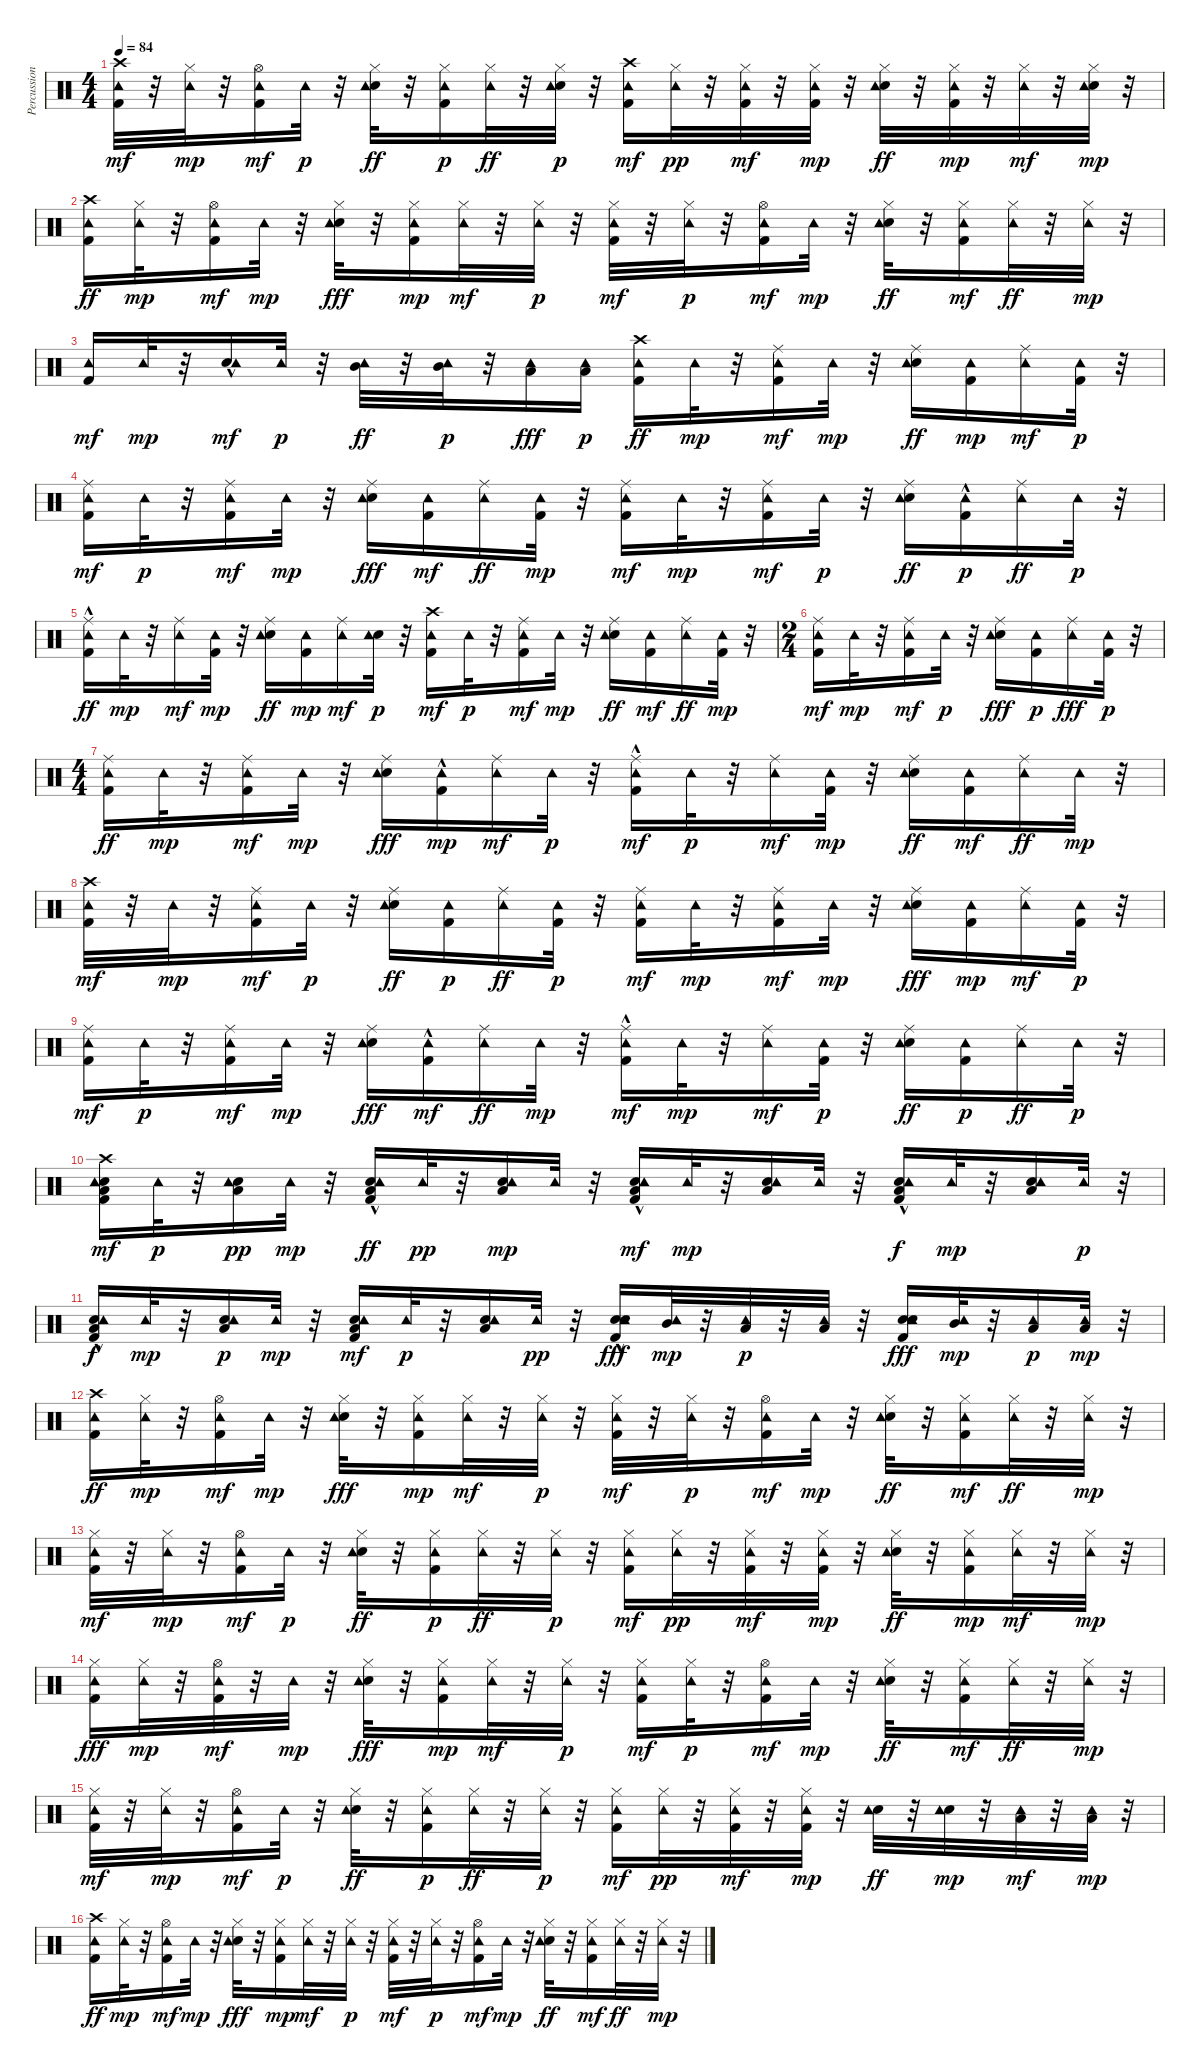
\track ("Percussions" "Percussion") {instrument percussion}
\staff {score}
\articulation defaults
\ts (4 4)
\tempo 84
\clef neutral
\ks c
("Crash high (hit)" "Kick (hit) 2" "Tambourine (hit)").32{dy mf} r.32 ("Hi-Hat (closed)" "Tambourine (hit)").32{dy mp} r.32 ("Hi-Hat (open)" "Kick (hit) 2" "Tambourine (hit)").16{dy mf} "Tambourine (hit)".32{dy p} r.32 ("Hi-Hat (closed)" "Snare (hit) 2" "Tambourine (hit)").32{dy ff} r.32 ("Hi-Hat (closed)" "Kick (hit) 2" "Tambourine (hit)").16{dy p} ("Hi-Hat (closed)" "Tambourine (hit)").32{dy ff} r.32 ("Snare (hit) 2" "Hi-Hat (closed)" "Tambourine (hit)").32{dy p} r.32 ("Crash high (hit)" "Kick (hit) 2" "Tambourine (hit)").16{dy mf} ("Hi-Hat (closed)" "Tambourine (hit)").32{dy pp} r.32 ("Hi-Hat (closed)" "Kick (hit) 2" "Tambourine (hit)").32{dy mf} r.32 ("Hi-Hat (closed)" "Kick (hit) 2" "Tambourine (hit)").32{dy mp} r.32 ("Snare (hit) 2" "Hi-Hat (closed)" "Tambourine (hit)").32{dy ff} r.32 ("Kick (hit) 2" "Hi-Hat (closed)" "Tambourine (hit)").32{dy mp} r.32 ("Hi-Hat (closed)" "Tambourine (hit)").32{dy mf} r.32 ("Hi-Hat (closed)" "Snare (hit) 2" "Tambourine (hit)").32{dy mp} r.32 |
("Crash high (hit)" "Kick (hit) 2" "Tambourine (hit)").16{dy ff} ("Hi-Hat (closed)" "Tambourine (hit)").32{dy mp} r.32 ("Hi-Hat (open)" "Kick (hit) 2" "Tambourine (hit)").16{dy mf} "Tambourine (hit)".32{dy mp} r.32 ("Hi-Hat (closed)" "Snare (hit) 2" "Tambourine (hit)").32{dy fff} r.32 ("Hi-Hat (closed)" "Kick (hit) 2" "Tambourine (hit)").16{dy mp} ("Hi-Hat (closed)" "Tambourine (hit)").32{dy mf} r.32 ("Hi-Hat (closed)" "Tambourine (hit)").32{dy p} r.32 ("Kick (hit) 2" "Hi-Hat (closed)" "Tambourine (hit)").32{dy mf} r.32 ("Hi-Hat (closed)" "Tambourine (hit)").32{dy p} r.32 ("Hi-Hat (open)" "Kick (hit) 2" "Tambourine (hit)").16{dy mf} "Tambourine (hit)".32{dy mp} r.32 ("Hi-Hat (closed)" "Snare (hit) 2" "Tambourine (hit)").32{dy ff} r.32 ("Hi-Hat (closed)" "Kick (hit) 2" "Tambourine (hit)").16{dy mf} ("Hi-Hat (closed)" "Tambourine (hit)").32{dy ff} r.32 ("Hi-Hat (closed)" "Tambourine (hit)").32{dy mp} r.32 |
("Kick (hit) 2" "Tambourine (hit)").16{dy mf} "Tambourine (hit)".32{dy mp} r.32 ("Snare (hit) 2"{hac} "Tambourine (hit)").16{dy mf} "Tambourine (hit)".32{dy p} r.32 ("Mid Tom (hit)" "Tambourine (hit)").32{dy ff} r.32 ("Mid Tom (hit)" "Tambourine (hit)").32{dy p} r.32 ("Low Tom (hit)" "Tambourine (hit)").16{dy fff} ("Low Floor Tom (hit)" "Tambourine (hit)").16{dy p} ("Crash high (hit)" "Kick (hit) 2" "Tambourine (hit)").16{dy ff} "Tambourine (hit)".32{dy mp} r.32 ("Ride (middle)" "Kick (hit) 2" "Tambourine (hit)").16{dy mf} "Tambourine (hit)".32{dy mp} r.32 ("Ride (middle)" "Snare (hit) 2" "Tambourine (hit)").16{dy ff} ("Kick (hit) 2" "Tambourine (hit)").16{dy mp} ("Ride (middle)" "Tambourine (hit)").16{dy mf} ("Kick (hit) 2" "Tambourine (hit)").32{dy p} r.32 |
("Ride (middle)" "Kick (hit) 2" "Tambourine (hit)").16{dy mf} "Tambourine (hit)".32{dy p} r.32 ("Ride (middle)" "Kick (hit) 2" "Tambourine (hit)").16{dy mf} "Tambourine (hit)".32{dy mp} r.32 ("Ride (middle)" "Snare (hit) 2" "Tambourine (hit)").16{dy fff} ("Kick (hit) 2" "Tambourine (hit)").16{dy mf} ("Ride (middle)" "Tambourine (hit)").16{dy ff} ("Kick (hit) 2" "Tambourine (hit)").32{dy mp} r.32 ("Kick (hit) 2" "Ride (middle)" "Tambourine (hit)").16{dy mf} "Tambourine (hit)".32{dy mp} r.32 ("Kick (hit) 2" "Ride (middle)" "Tambourine (hit)").16{dy mf} "Tambourine (hit)".32{dy p} r.32 ("Snare (hit) 2" "Ride (middle)" "Tambourine (hit)").16{dy ff} ("Kick (hit) 2"{hac} "Tambourine (hit)").16{dy p} ("Ride (middle)" "Tambourine (hit)").16{dy ff} "Tambourine (hit)".32{dy p} r.32 |
("Kick (hit) 2"{hac} "Ride (middle)" "Tambourine (hit)").16{dy ff} "Tambourine (hit)".32{dy mp} r.32 ("Ride (middle)" "Tambourine (hit)").16{dy mf} ("Kick (hit) 2" "Tambourine (hit)").32{dy mp} r.32 ("Ride (middle)" "Snare (hit) 2" "Tambourine (hit)").16{dy ff} ("Kick (hit) 2" "Tambourine (hit)").16{dy mp} ("Ride (middle)" "Tambourine (hit)").16{dy mf} ("Snare (hit) 2" "Tambourine (hit)").32{dy p} r.32 ("Kick (hit) 2" "Crash high (hit)" "Tambourine (hit)").16{dy mf} "Tambourine (hit)".32{dy p} r.32 ("Ride (middle)" "Kick (hit) 2" "Tambourine (hit)").16{dy mf} "Tambourine (hit)".32{dy mp} r.32 ("Ride (middle)" "Snare (hit) 2" "Tambourine (hit)").16{dy ff} ("Kick (hit) 2" "Tambourine (hit)").16{dy mf} ("Ride (middle)" "Tambourine (hit)").16{dy ff} ("Kick (hit) 2" "Tambourine (hit)").32{dy mp} r.32 |
\ts (2 4)
("Ride (middle)" "Kick (hit) 2" "Tambourine (hit)").16{dy mf} "Tambourine (hit)".32{dy mp} r.32 ("Ride (middle)" "Kick (hit) 2" "Tambourine (hit)").16{dy mf} "Tambourine (hit)".32{dy p} r.32 ("Ride (middle)" "Snare (hit) 2" "Tambourine (hit)").16{dy fff} ("Kick (hit) 2" "Tambourine (hit)").16{dy p} ("Ride (middle)" "Tambourine (hit)").16{dy fff} ("Kick (hit) 2" "Tambourine (hit)").32{dy p} r.32 |
\ts (4 4)
("Ride (middle)" "Kick (hit) 2" "Tambourine (hit)").16{dy ff} "Tambourine (hit)".32{dy mp} r.32 ("Ride (middle)" "Kick (hit) 2" "Tambourine (hit)").16{dy mf} "Tambourine (hit)".32{dy mp} r.32 ("Ride (middle)" "Snare (hit) 2" "Tambourine (hit)").16{dy fff} ("Kick (hit) 2"{hac} "Tambourine (hit)").16{dy mp} ("Ride (middle)" "Tambourine (hit)").16{dy mf} "Tambourine (hit)".32{dy p} r.32 ("Ride (middle)" "Kick (hit) 2"{hac} "Tambourine (hit)").16{dy mf} "Tambourine (hit)".32{dy p} r.32 ("Ride (middle)" "Tambourine (hit)").16{dy mf} ("Kick (hit) 2" "Tambourine (hit)").32{dy mp} r.32 ("Ride (middle)" "Snare (hit) 2" "Tambourine (hit)").16{dy ff} ("Kick (hit) 2" "Tambourine (hit)").16{dy mf} ("Ride (middle)" "Tambourine (hit)").16{dy ff} "Tambourine (hit)".32{dy mp} r.32 |
("Crash high (hit)" "Kick (hit) 2" "Tambourine (hit)").32{dy mf} r.32 "Tambourine (hit)".32{dy mp} r.32 ("Ride (middle)" "Kick (hit) 2" "Tambourine (hit)").16{dy mf} "Tambourine (hit)".32{dy p} r.32 ("Ride (middle)" "Snare (hit) 2" "Tambourine (hit)").16{dy ff} ("Kick (hit) 2" "Tambourine (hit)").16{dy p} ("Ride (middle)" "Tambourine (hit)").16{dy ff} ("Kick (hit) 2" "Tambourine (hit)").32{dy p} r.32 ("Ride (middle)" "Kick (hit) 2" "Tambourine (hit)").16{dy mf} "Tambourine (hit)".32{dy mp} r.32 ("Ride (middle)" "Kick (hit) 2" "Tambourine (hit)").16{dy mf} "Tambourine (hit)".32{dy mp} r.32 ("Ride (middle)" "Snare (hit) 2" "Tambourine (hit)").16{dy fff} ("Kick (hit) 2" "Tambourine (hit)").16{dy mp} ("Ride (middle)" "Tambourine (hit)").16{dy mf} ("Kick (hit) 2" "Tambourine (hit)").32{dy p} r.32 |
("Ride (middle)" "Kick (hit) 2" "Tambourine (hit)").16{dy mf} "Tambourine (hit)".32{dy p} r.32 ("Ride (middle)" "Kick (hit) 2" "Tambourine (hit)").16{dy mf} "Tambourine (hit)".32{dy mp} r.32 ("Ride (middle)" "Snare (hit) 2" "Tambourine (hit)").16{dy fff} ("Kick (hit) 2"{hac} "Tambourine (hit)").16{dy mf} ("Ride (middle)" "Tambourine (hit)").16{dy ff} "Tambourine (hit)".32{dy mp} r.32 ("Ride (middle)" "Kick (hit) 2"{hac} "Tambourine (hit)").16{dy mf} "Tambourine (hit)".32{dy mp} r.32 ("Ride (middle)" "Tambourine (hit)").16{dy mf} ("Kick (hit) 2" "Tambourine (hit)").32{dy p} r.32 ("Snare (hit) 2" "Ride (middle)" "Tambourine (hit)").16{dy ff} ("Kick (hit) 2" "Tambourine (hit)").16{dy p} ("Ride (middle)" "Tambourine (hit)").16{dy ff} "Tambourine (hit)".32{dy p} r.32 |
("Crash high (hit)" "Snare (hit) 2" "Low Floor Tom (hit)" "Kick (hit) 2" "Tambourine (hit)").16{dy mf} "Tambourine (hit)".32{dy p} r.32 ("Snare (hit) 2" "Low Floor Tom (hit)" "Tambourine (hit)").16{dy pp} "Tambourine (hit)".32{dy mp} r.32 ("Low Floor Tom (hit)" "Kick (hit) 2"{hac} "Snare (hit) 2" "Tambourine (hit)").16{dy ff} "Tambourine (hit)".32{dy pp} r.32 ("Low Floor Tom (hit)" "Snare (hit) 2" "Tambourine (hit)").16{dy mp} "Tambourine (hit)".32 r.32 ("Kick (hit) 2"{hac} "Low Floor Tom (hit)" "Snare (hit) 2" "Tambourine (hit)").16{dy mf} "Tambourine (hit)".32{dy mp} r.32 ("Low Floor Tom (hit)" "Snare (hit) 2" "Tambourine (hit)").16 "Tambourine (hit)".32 r.32 ("Kick (hit) 2"{hac} "Snare (hit) 2" "Low Floor Tom (hit)" "Tambourine (hit)").16{dy f} "Tambourine (hit)".32{dy mp} r.32 ("Snare (hit) 2" "Low Floor Tom (hit)" "Tambourine (hit)").16 "Tambourine (hit)".32{dy p} r.32 |
("Snare (hit) 2" "Low Floor Tom (hit)" "Kick (hit) 2"{hac} "Tambourine (hit)").16{dy f} "Tambourine (hit)".32{dy mp} r.32 ("Low Floor Tom (hit)" "Snare (hit) 2" "Tambourine (hit)").16{dy p} "Tambourine (hit)".32{dy mp} r.32 ("Kick (hit) 2" "Low Floor Tom (hit)" "Snare (hit) 2" "Tambourine (hit)").16{dy mf} "Tambourine (hit)".32{dy p} r.32 ("Snare (hit) 2" "Low Floor Tom (hit)" "Tambourine (hit)").16 "Tambourine (hit)".32{dy pp} r.32 ("Snare (hit) 2" "Kick (hit) 2"{hac} "Tambourine (hit)" "Snare (hit) 2").16{dy fff} ("Mid Tom (hit)" "Tambourine (hit)").32{dy mp} r.32 ("Low Tom (hit)" "Tambourine (hit)").32{dy p} r.32 ("Low Floor Tom (hit)" "Tambourine (hit)").32 r.32 ("Snare (hit) 2" "Kick (hit) 2" "Tambourine (hit)" "Snare (hit) 2").16{dy fff} ("Mid Tom (hit)" "Tambourine (hit)").32{dy mp} r.32 ("Low Tom (hit)" "Tambourine (hit)").16{dy p} ("Low Floor Tom (hit)" "Tambourine (hit)").32{dy mp} r.32 |
("Crash high (hit)" "Kick (hit) 2" "Tambourine (hit)").16{dy ff} ("Hi-Hat (closed)" "Tambourine (hit)").32{dy mp} r.32 ("Hi-Hat (open)" "Kick (hit) 2" "Tambourine (hit)").16{dy mf} "Tambourine (hit)".32{dy mp} r.32 ("Hi-Hat (closed)" "Snare (hit) 2" "Tambourine (hit)").32{dy fff} r.32 ("Hi-Hat (closed)" "Kick (hit) 2" "Tambourine (hit)").16{dy mp} ("Hi-Hat (closed)" "Tambourine (hit)").32{dy mf} r.32 ("Hi-Hat (closed)" "Tambourine (hit)").32{dy p} r.32 ("Kick (hit) 2" "Hi-Hat (closed)" "Tambourine (hit)").32{dy mf} r.32 ("Hi-Hat (closed)" "Tambourine (hit)").32{dy p} r.32 ("Hi-Hat (open)" "Kick (hit) 2" "Tambourine (hit)").16{dy mf} "Tambourine (hit)".32{dy mp} r.32 ("Hi-Hat (closed)" "Snare (hit) 2" "Tambourine (hit)").32{dy ff} r.32 ("Hi-Hat (closed)" "Kick (hit) 2" "Tambourine (hit)").16{dy mf} ("Hi-Hat (closed)" "Tambourine (hit)").32{dy ff} r.32 ("Hi-Hat (closed)" "Tambourine (hit)").32{dy mp} r.32 |
("Hi-Hat (closed)" "Kick (hit) 2" "Tambourine (hit)").32{dy mf} r.32 ("Hi-Hat (closed)" "Tambourine (hit)").32{dy mp} r.32 ("Hi-Hat (open)" "Kick (hit) 2" "Tambourine (hit)").16{dy mf} "Tambourine (hit)".32{dy p} r.32 ("Hi-Hat (closed)" "Snare (hit) 2" "Tambourine (hit)").32{dy ff} r.32 ("Kick (hit) 2" "Hi-Hat (closed)" "Tambourine (hit)").16{dy p} ("Hi-Hat (closed)" "Tambourine (hit)").32{dy ff} r.32 ("Hi-Hat (closed)" "Tambourine (hit)").32{dy p} r.32 ("Kick (hit) 2" "Hi-Hat (closed)" "Tambourine (hit)").16{dy mf} ("Hi-Hat (closed)" "Tambourine (hit)").32{dy pp} r.32 ("Hi-Hat (closed)" "Kick (hit) 2" "Tambourine (hit)").32{dy mf} r.32 ("Hi-Hat (closed)" "Kick (hit) 2" "Tambourine (hit)").32{dy mp} r.32 ("Snare (hit) 2" "Hi-Hat (closed)" "Tambourine (hit)").32{dy ff} r.32 ("Kick (hit) 2" "Hi-Hat (closed)" "Tambourine (hit)").16{dy mp} ("Hi-Hat (closed)" "Tambourine (hit)").32{dy mf} r.32 ("Hi-Hat (closed)" "Tambourine (hit)").32{dy mp} r.32 |
("Kick (hit) 2" "Hi-Hat (closed)" "Tambourine (hit)").16{dy fff} ("Hi-Hat (closed)" "Tambourine (hit)").32{dy mp} r.32 ("Hi-Hat (open)" "Kick (hit) 2" "Tambourine (hit)").32{dy mf} r.32 "Tambourine (hit)".32{dy mp} r.32 ("Snare (hit) 2" "Hi-Hat (closed)" "Tambourine (hit)").32{dy fff} r.32 ("Kick (hit) 2" "Hi-Hat (closed)" "Tambourine (hit)").16{dy mp} ("Hi-Hat (closed)" "Tambourine (hit)").32{dy mf} r.32 ("Hi-Hat (closed)" "Tambourine (hit)").32{dy p} r.32 ("Kick (hit) 2" "Hi-Hat (closed)" "Tambourine (hit)").16{dy mf} ("Hi-Hat (closed)" "Tambourine (hit)").32{dy p} r.32 ("Hi-Hat (open)" "Kick (hit) 2" "Tambourine (hit)").16{dy mf} "Tambourine (hit)".32{dy mp} r.32 ("Hi-Hat (closed)" "Snare (hit) 2" "Tambourine (hit)").32{dy ff} r.32 ("Kick (hit) 2" "Hi-Hat (closed)" "Tambourine (hit)").16{dy mf} ("Hi-Hat (closed)" "Tambourine (hit)").32{dy ff} r.32 ("Hi-Hat (closed)" "Tambourine (hit)").32{dy mp} r.32 |
("Kick (hit) 2" "Hi-Hat (closed)" "Tambourine (hit)").32{dy mf} r.32 ("Hi-Hat (closed)" "Tambourine (hit)").32{dy mp} r.32 ("Hi-Hat (open)" "Kick (hit) 2" "Tambourine (hit)").16{dy mf} "Tambourine (hit)".32{dy p} r.32 ("Hi-Hat (closed)" "Snare (hit) 2" "Tambourine (hit)").32{dy ff} r.32 ("Hi-Hat (closed)" "Kick (hit) 2" "Tambourine (hit)").16{dy p} ("Hi-Hat (closed)" "Tambourine (hit)").32{dy ff} r.32 ("Hi-Hat (closed)" "Tambourine (hit)").32{dy p} r.32 ("Kick (hit) 2" "Hi-Hat (closed)" "Tambourine (hit)").16{dy mf} ("Hi-Hat (closed)" "Tambourine (hit)").32{dy pp} r.32 ("Kick (hit) 2" "Hi-Hat (closed)" "Tambourine (hit)").32{dy mf} r.32 ("Kick (hit) 2" "Hi-Hat (closed)" "Tambourine (hit)").32{dy mp} r.32 ("Snare (hit) 2" "Tambourine (hit)").32{dy ff} r.32 ("Snare (hit) 2" "Tambourine (hit)").32{dy mp} r.32 ("Low Tom (hit)" "Tambourine (hit)").32{dy mf} r.32 ("Low Floor Tom (hit)" "Tambourine (hit)").32{dy mp} r.32 |
("Crash high (hit)" "Kick (hit) 2" "Tambourine (hit)").16{dy ff} ("Hi-Hat (closed)" "Tambourine (hit)").32{dy mp} r.32 ("Hi-Hat (open)" "Kick (hit) 2" "Tambourine (hit)").16{dy mf} "Tambourine (hit)".32{dy mp} r.32 ("Hi-Hat (closed)" "Snare (hit) 2" "Tambourine (hit)").32{dy fff} r.32 ("Hi-Hat (closed)" "Kick (hit) 2" "Tambourine (hit)").16{dy mp} ("Hi-Hat (closed)" "Tambourine (hit)").32{dy mf} r.32 ("Hi-Hat (closed)" "Tambourine (hit)").32{dy p} r.32 ("Kick (hit) 2" "Hi-Hat (closed)" "Tambourine (hit)").32{dy mf} r.32 ("Hi-Hat (closed)" "Tambourine (hit)").32{dy p} r.32 ("Hi-Hat (open)" "Kick (hit) 2" "Tambourine (hit)").16{dy mf} "Tambourine (hit)".32{dy mp} r.32 ("Hi-Hat (closed)" "Snare (hit) 2" "Tambourine (hit)").32{dy ff} r.32 ("Hi-Hat (closed)" "Kick (hit) 2" "Tambourine (hit)").16{dy mf} ("Hi-Hat (closed)" "Tambourine (hit)").32{dy ff} r.32 ("Hi-Hat (closed)" "Tambourine (hit)").32{dy mp} r.32
